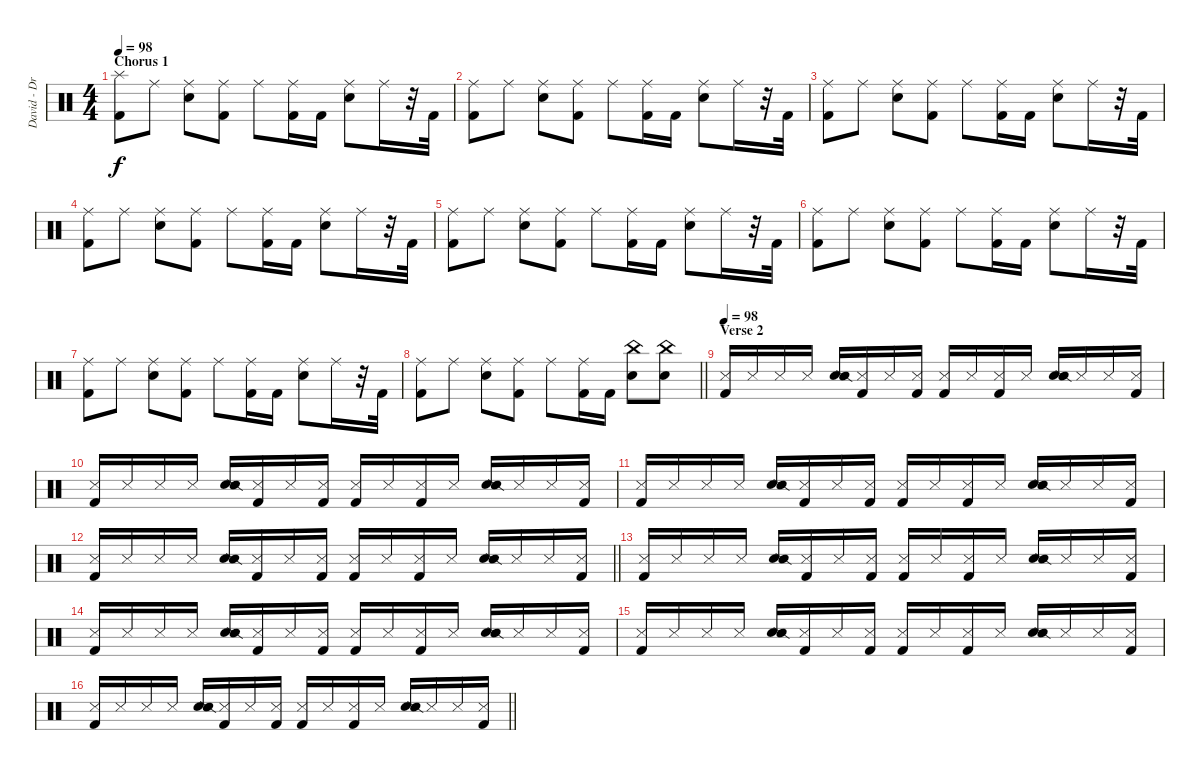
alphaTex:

\track ("David - Drums" "David - Dr") {instrument percussion}
\staff {score}
\articulation defaults
\ts (4 4)
\section ("" "Chorus 1")
\tempo 98
\clef neutral
\ks c
("Splash (hit)" "Kick (hit) 2").8{dy f} "Ride (middle)".8 ("Ride (middle)" "Snare (hit) 2").8 ("Ride (middle)" "Kick (hit) 2").8 "Ride (middle)".8 ("Ride (middle)" "Kick (hit) 2").16 "Kick (hit) 2".16 ("Ride (middle)" "Snare (hit) 2").8 "Ride (middle)".16 r.32 "Kick (hit) 2".32 |
("Ride (middle)" "Kick (hit) 2").8 "Ride (middle)".8 ("Ride (middle)" "Snare (hit) 2").8 ("Ride (middle)" "Kick (hit) 2").8 "Ride (middle)".8 ("Ride (middle)" "Kick (hit) 2").16 "Kick (hit) 2".16 ("Ride (middle)" "Snare (hit) 2").8 "Ride (middle)".16 r.32 "Kick (hit) 2".32 |
("Ride (middle)" "Kick (hit) 2").8 "Ride (middle)".8 ("Ride (middle)" "Snare (hit) 2").8 ("Ride (middle)" "Kick (hit) 2").8 "Ride (middle)".8 ("Ride (middle)" "Kick (hit) 2").16 "Kick (hit) 2".16 ("Ride (middle)" "Snare (hit) 2").8 "Ride (middle)".16 r.32 "Kick (hit) 2".32 |
("Ride (middle)" "Kick (hit) 2").8 "Ride (middle)".8 ("Ride (middle)" "Snare (hit) 2").8 ("Ride (middle)" "Kick (hit) 2").8 "Ride (middle)".8 ("Ride (middle)" "Kick (hit) 2").16 "Kick (hit) 2".16 ("Ride (middle)" "Snare (hit) 2").8 "Ride (middle)".16 r.32 "Kick (hit) 2".32 |
("Ride (middle)" "Kick (hit) 2").8 "Ride (middle)".8 ("Ride (middle)" "Snare (hit) 2").8 ("Ride (middle)" "Kick (hit) 2").8 "Ride (middle)".8 ("Ride (middle)" "Kick (hit) 2").16 "Kick (hit) 2".16 ("Ride (middle)" "Snare (hit) 2").8 "Ride (middle)".16 r.32 "Kick (hit) 2".32 |
("Ride (middle)" "Kick (hit) 2").8 "Ride (middle)".8 ("Ride (middle)" "Snare (hit) 2").8 ("Ride (middle)" "Kick (hit) 2").8 "Ride (middle)".8 ("Ride (middle)" "Kick (hit) 2").16 "Kick (hit) 2".16 ("Ride (middle)" "Snare (hit) 2").8 "Ride (middle)".16 r.32 "Kick (hit) 2".32 |
("Ride (middle)" "Kick (hit) 2").8 "Ride (middle)".8 ("Ride (middle)" "Snare (hit) 2").8 ("Ride (middle)" "Kick (hit) 2").8 "Ride (middle)".8 ("Ride (middle)" "Kick (hit) 2").16 "Kick (hit) 2".16 ("Ride (middle)" "Snare (hit) 2").8 "Ride (middle)".16 r.32 "Kick (hit) 2".32 |
\barLineRight lightlight
("Ride (middle)" "Kick (hit) 2").8 "Ride (middle)".8 ("Ride (middle)" "Snare (hit) 2").8 ("Ride (middle)" "Kick (hit) 2").8 "Ride (middle)".8 ("Ride (middle)" "Kick (hit) 2").16 "Kick (hit) 2".16 ("China (hit)" "Snare (hit) 2").8 ("China (hit)" "Snare (hit) 2").8 |
\section ("" "Verse 2")
\tempo 98
("Kick (hit) 2" "Metronome (hit)").16{volume 16} "Metronome (hit)".16 "Metronome (hit)".16 "Metronome (hit)".16 ("Hand Clap (hit)" "Snare (side stick) 2").16 ("Kick (hit) 2" "Metronome (hit)").16 "Metronome (hit)".16 ("Kick (hit) 2" "Metronome (hit)").16 ("Kick (hit) 2" "Metronome (hit)").16 "Metronome (hit)".16 ("Kick (hit) 2" "Metronome (hit)").16 "Metronome (hit)".16 ("Hand Clap (hit)" "Snare (side stick) 2").16 "Metronome (hit)".16 "Metronome (hit)".16 ("Kick (hit) 2" "Metronome (hit)").16 |
("Kick (hit) 2" "Metronome (hit)").16 "Metronome (hit)".16 "Metronome (hit)".16 "Metronome (hit)".16 ("Hand Clap (hit)" "Snare (side stick) 2").16 ("Kick (hit) 2" "Metronome (hit)").16 "Metronome (hit)".16 ("Kick (hit) 2" "Metronome (hit)").16 ("Kick (hit) 2" "Metronome (hit)").16 "Metronome (hit)".16 ("Kick (hit) 2" "Metronome (hit)").16 "Metronome (hit)".16 ("Hand Clap (hit)" "Snare (side stick) 2").16 "Metronome (hit)".16 "Metronome (hit)".16 ("Kick (hit) 2" "Metronome (hit)").16 |
("Kick (hit) 2" "Metronome (hit)").16 "Metronome (hit)".16 "Metronome (hit)".16 "Metronome (hit)".16 ("Hand Clap (hit)" "Snare (side stick) 2").16 ("Kick (hit) 2" "Metronome (hit)").16 "Metronome (hit)".16 ("Kick (hit) 2" "Metronome (hit)").16 ("Kick (hit) 2" "Metronome (hit)").16 "Metronome (hit)".16 ("Kick (hit) 2" "Metronome (hit)").16 "Metronome (hit)".16 ("Hand Clap (hit)" "Snare (side stick) 2").16 "Metronome (hit)".16 "Metronome (hit)".16 ("Kick (hit) 2" "Metronome (hit)").16 |
\barLineRight lightlight
("Kick (hit) 2" "Metronome (hit)").16 "Metronome (hit)".16 "Metronome (hit)".16 "Metronome (hit)".16 ("Hand Clap (hit)" "Snare (side stick) 2").16 ("Kick (hit) 2" "Metronome (hit)").16 "Metronome (hit)".16 ("Kick (hit) 2" "Metronome (hit)").16 ("Kick (hit) 2" "Metronome (hit)").16 "Metronome (hit)".16 ("Kick (hit) 2" "Metronome (hit)").16 "Metronome (hit)".16 ("Hand Clap (hit)" "Snare (side stick) 2").16 "Metronome (hit)".16 "Metronome (hit)".16 ("Kick (hit) 2" "Metronome (hit)").16 |
("Kick (hit) 2" "Metronome (hit)").16 "Metronome (hit)".16 "Metronome (hit)".16 "Metronome (hit)".16 ("Hand Clap (hit)" "Snare (side stick) 2").16 ("Kick (hit) 2" "Metronome (hit)").16 "Metronome (hit)".16 ("Kick (hit) 2" "Metronome (hit)").16 ("Kick (hit) 2" "Metronome (hit)").16 "Metronome (hit)".16 ("Kick (hit) 2" "Metronome (hit)").16 "Metronome (hit)".16 ("Hand Clap (hit)" "Snare (side stick) 2").16 "Metronome (hit)".16 "Metronome (hit)".16 ("Kick (hit) 2" "Metronome (hit)").16 |
("Kick (hit) 2" "Metronome (hit)").16 "Metronome (hit)".16 "Metronome (hit)".16 "Metronome (hit)".16 ("Hand Clap (hit)" "Snare (side stick) 2").16 ("Kick (hit) 2" "Metronome (hit)").16 "Metronome (hit)".16 ("Kick (hit) 2" "Metronome (hit)").16 ("Kick (hit) 2" "Metronome (hit)").16 "Metronome (hit)".16 ("Kick (hit) 2" "Metronome (hit)").16 "Metronome (hit)".16 ("Hand Clap (hit)" "Snare (side stick) 2").16 "Metronome (hit)".16 "Metronome (hit)".16 ("Kick (hit) 2" "Metronome (hit)").16 |
("Kick (hit) 2" "Metronome (hit)").16 "Metronome (hit)".16 "Metronome (hit)".16 "Metronome (hit)".16 ("Hand Clap (hit)" "Snare (side stick) 2").16 ("Kick (hit) 2" "Metronome (hit)").16 "Metronome (hit)".16 ("Kick (hit) 2" "Metronome (hit)").16 ("Kick (hit) 2" "Metronome (hit)").16 "Metronome (hit)".16 ("Kick (hit) 2" "Metronome (hit)").16 "Metronome (hit)".16 ("Hand Clap (hit)" "Snare (side stick) 2").16 "Metronome (hit)".16 "Metronome (hit)".16 ("Kick (hit) 2" "Metronome (hit)").16 |
\barLineRight lightlight
("Kick (hit) 2" "Metronome (hit)").16 "Metronome (hit)".16 "Metronome (hit)".16 "Metronome (hit)".16 ("Hand Clap (hit)" "Snare (side stick) 2").16 ("Kick (hit) 2" "Metronome (hit)").16 "Metronome (hit)".16 ("Kick (hit) 2" "Metronome (hit)").16 ("Kick (hit) 2" "Metronome (hit)").16 "Metronome (hit)".16 ("Kick (hit) 2" "Metronome (hit)").16 "Metronome (hit)".16 ("Hand Clap (hit)" "Snare (side stick) 2").16 "Metronome (hit)".16 "Metronome (hit)".16 ("Kick (hit) 2" "Metronome (hit)").16
